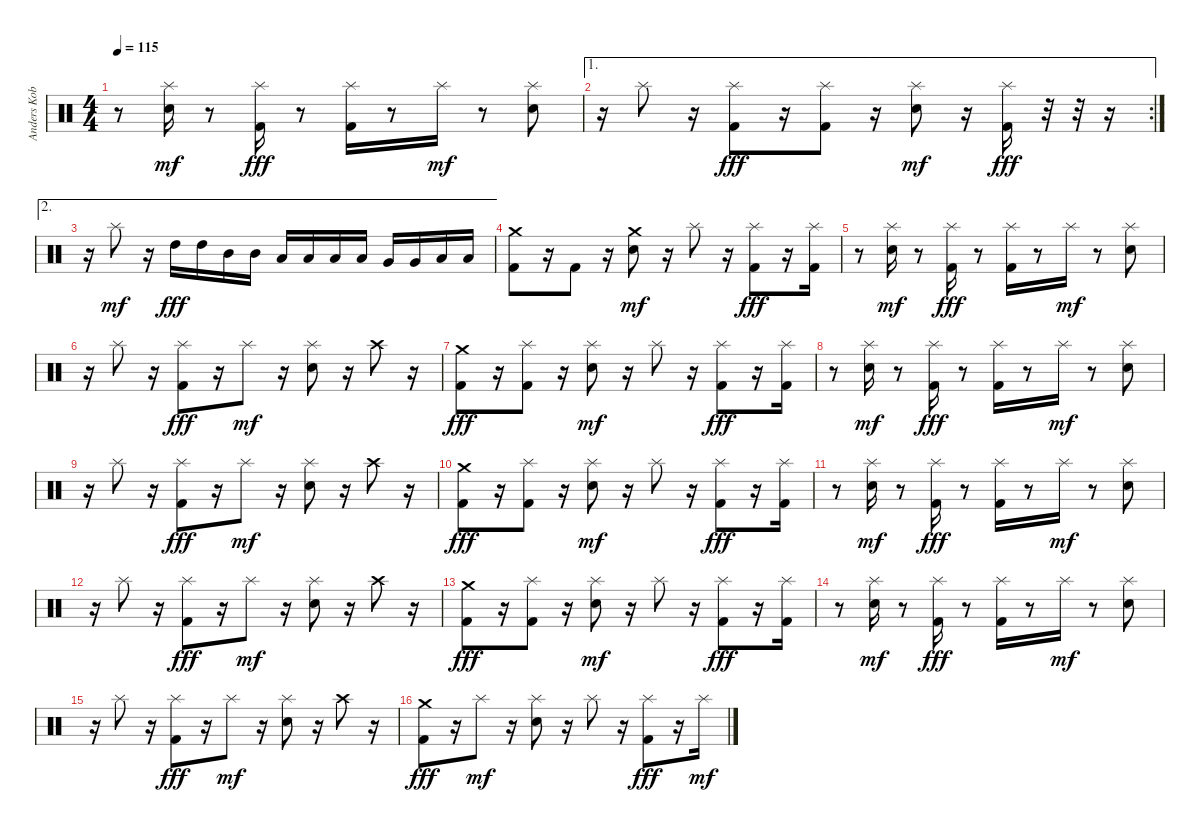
\track ("Anders Kobro " "Anders Kob") {instrument percussion}
\staff {score}
\articulation defaults
\ts (4 4)
\tempo 115
\clef neutral
\ks c
r.8{dy mf} ("Splash (hit)" "Snare (hit) 2").16 r.8 ("Splash (hit)" "Kick (hit) 2").16{dy fff} r.8 ("Splash (hit)" "Kick (hit) 2").16 r.8 "Splash (hit)".16{dy mf} r.8 ("Splash (hit)" "Snare (hit) 2").8 |
\ae 1
\rc 2
r.16 "Splash (hit)".8 r.16 ("Splash (hit)" "Kick (hit) 2").8{dy fff} r.16 ("Splash (hit)" "Kick (hit) 2").8 r.16 ("Splash (hit)" "Snare (hit) 2").8{dy mf} r.16 ("Splash (hit)" "Kick (hit) 2").16{dy fff} r.32 r.32 r.16 |
\ae 2
r.16 "Splash (hit)".8{dy mf} r.16 "High Tom (hit)".16{dy fff} "High Tom (hit)".16 "Mid Tom (hit)".16 "Mid Tom (hit)".16 "Low Tom (hit)".16 "Low Tom (hit)".16 "Low Tom (hit)".16 "Low Tom (hit)".16 "Very Low Tom (hit)".16 "Very Low Tom (hit)".16 "Low Floor Tom (hit)".16 "Low Floor Tom (hit)".16 |
("Crash medium (hit)" "Kick (hit) 2").8 r.16 "Kick (hit) 2".8 r.16 ("Crash medium (hit)" "Snare (hit) 2").8{dy mf} r.16 "Splash (hit)".8 r.16 ("Splash (hit)" "Kick (hit) 2").8{dy fff} r.16 ("Splash (hit)" "Kick (hit) 2").16 |
r.8 ("Splash (hit)" "Snare (hit) 2").16{dy mf} r.8 ("Splash (hit)" "Kick (hit) 2").16{dy fff} r.8 ("Splash (hit)" "Kick (hit) 2").16 r.8 "Splash (hit)".16{dy mf} r.8 ("Splash (hit)" "Snare (hit) 2").8 |
r.16 "Splash (hit)".8 r.16 ("Splash (hit)" "Kick (hit) 2").8{dy fff} r.16 "Splash (hit)".8{dy mf} r.16 ("Splash (hit)" "Snare (hit) 2").8 r.16 "Crash high (hit)".8 r.16 |
("Crash medium (hit)" "Kick (hit) 2").8{dy fff} r.16 ("Splash (hit)" "Kick (hit) 2").8 r.16 ("Splash (hit)" "Snare (hit) 2").8{dy mf} r.16 "Splash (hit)".8 r.16 ("Splash (hit)" "Kick (hit) 2").8{dy fff} r.16 ("Splash (hit)" "Kick (hit) 2").16 |
r.8 ("Splash (hit)" "Snare (hit) 2").16{dy mf} r.8 ("Splash (hit)" "Kick (hit) 2").16{dy fff} r.8 ("Splash (hit)" "Kick (hit) 2").16 r.8 "Splash (hit)".16{dy mf} r.8 ("Splash (hit)" "Snare (hit) 2").8 |
r.16 "Splash (hit)".8 r.16 ("Splash (hit)" "Kick (hit) 2").8{dy fff} r.16 "Splash (hit)".8{dy mf} r.16 ("Splash (hit)" "Snare (hit) 2").8 r.16 "Crash high (hit)".8 r.16 |
("Crash medium (hit)" "Kick (hit) 2").8{dy fff} r.16 ("Splash (hit)" "Kick (hit) 2").8 r.16 ("Splash (hit)" "Snare (hit) 2").8{dy mf} r.16 "Splash (hit)".8 r.16 ("Splash (hit)" "Kick (hit) 2").8{dy fff} r.16 ("Splash (hit)" "Kick (hit) 2").16 |
r.8 ("Splash (hit)" "Snare (hit) 2").16{dy mf} r.8 ("Splash (hit)" "Kick (hit) 2").16{dy fff} r.8 ("Splash (hit)" "Kick (hit) 2").16 r.8 "Splash (hit)".16{dy mf} r.8 ("Splash (hit)" "Snare (hit) 2").8 |
r.16 "Splash (hit)".8 r.16 ("Splash (hit)" "Kick (hit) 2").8{dy fff} r.16 "Splash (hit)".8{dy mf} r.16 ("Splash (hit)" "Snare (hit) 2").8 r.16 "Crash high (hit)".8 r.16 |
("Crash medium (hit)" "Kick (hit) 2").8{dy fff} r.16 ("Splash (hit)" "Kick (hit) 2").8 r.16 ("Splash (hit)" "Snare (hit) 2").8{dy mf} r.16 "Splash (hit)".8 r.16 ("Splash (hit)" "Kick (hit) 2").8{dy fff} r.16 ("Splash (hit)" "Kick (hit) 2").16 |
r.8 ("Splash (hit)" "Snare (hit) 2").16{dy mf} r.8 ("Splash (hit)" "Kick (hit) 2").16{dy fff} r.8 ("Splash (hit)" "Kick (hit) 2").16 r.8 "Splash (hit)".16{dy mf} r.8 ("Splash (hit)" "Snare (hit) 2").8 |
r.16 "Splash (hit)".8 r.16 ("Splash (hit)" "Kick (hit) 2").8{dy fff} r.16 "Splash (hit)".8{dy mf} r.16 ("Splash (hit)" "Snare (hit) 2").8 r.16 "Crash high (hit)".8 r.16 |
("Crash medium (hit)" "Kick (hit) 2").8{dy fff} r.16 "Splash (hit)".8{dy mf} r.16 ("Splash (hit)" "Snare (hit) 2").8 r.16 "Splash (hit)".8 r.16 ("Splash (hit)" "Kick (hit) 2").8{dy fff} r.16 "Splash (hit)".16{dy mf}
